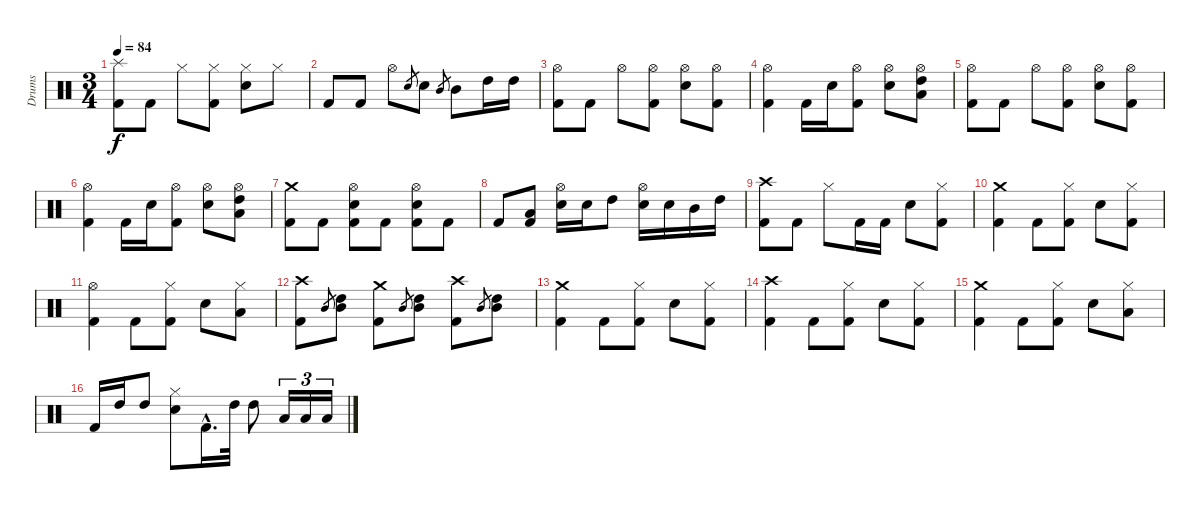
\track ("Drums" "Drums") {instrument percussion}
\staff {score}
\articulation defaults
\ts (3 4)
\tempo 84
\clef neutral
\ks c
("Kick (hit) 2" "Splash (hit)").8{dy f} "Kick (hit) 2".8 "Hi-Hat (closed)".8 ("Kick (hit) 2" "Hi-Hat (closed)").8 ("Snare (hit) 2" "Hi-Hat (closed)").8 "Hi-Hat (closed)".8 |
"Kick (hit) 2".8 "Kick (hit) 2".8 "Hi-Hat (open)".8 "Snare (hit) 2".8{gr} "Snare (hit) 2".8 "Mid Tom (hit)".8{gr} "Mid Tom (hit)".8 "High Tom (hit)".16 "High Tom (hit)".16 |
("Kick (hit) 2" "Hi-Hat (open)").8 "Kick (hit) 2".8 "Hi-Hat (open)".8 ("Kick (hit) 2" "Hi-Hat (open)").8 ("Snare (hit) 2" "Hi-Hat (open)").8 ("Kick (hit) 2" "Hi-Hat (open)").8 |
("Kick (hit) 2" "Hi-Hat (open)").4 "Kick (hit) 2".16 "Snare (hit) 2".16 ("Kick (hit) 2" "Hi-Hat (open)").8 ("Snare (hit) 2" "Hi-Hat (open)").8 ("Hi-Hat (open)" "Low Tom (hit)" "High Tom (hit)").8 |
("Kick (hit) 2" "Hi-Hat (open)").8 "Kick (hit) 2".8 "Hi-Hat (open)".8 ("Kick (hit) 2" "Hi-Hat (open)").8 ("Snare (hit) 2" "Hi-Hat (open)").8 ("Kick (hit) 2" "Hi-Hat (open)").8 |
("Kick (hit) 2" "Hi-Hat (open)").4 "Kick (hit) 2".16 "Snare (hit) 2".16 ("Kick (hit) 2" "Hi-Hat (open)").8 ("Snare (hit) 2" "Hi-Hat (open)").8 ("Hi-Hat (open)" "Low Tom (hit)" "High Tom (hit)").8 |
("Kick (hit) 2" "Crash medium (hit)").8 "Kick (hit) 2".8 ("Kick (hit) 2" "Snare (hit) 2" "Hi-Hat (open)").8 "Kick (hit) 2".8 ("Kick (hit) 2" "Snare (hit) 2" "Hi-Hat (open)").8 "Kick (hit) 2".8 |
"Kick (hit) 2".8 ("Kick (hit) 2" "Low Tom (hit)").8 ("Snare (hit) 2" "Hi-Hat (open)").16 "Snare (hit) 2".16 "High Tom (hit)".8 ("Snare (hit) 2" "Hi-Hat (open)").16 "Snare (hit) 2".16 "Mid Tom (hit)".16 "High Tom (hit)".16 |
("Kick (hit) 2" "Crash high (hit)").8 "Kick (hit) 2".8 "Hi-Hat (closed)".8 "Kick (hit) 2".16 "Kick (hit) 2".16 "Snare (hit) 2".8 ("Kick (hit) 2" "Hi-Hat (closed)").8 |
("Kick (hit) 2" "Crash medium (hit)").4 "Kick (hit) 2".8 ("Kick (hit) 2" "Hi-Hat (closed)").8 "Snare (hit) 2".8 ("Kick (hit) 2" "Hi-Hat (closed)").8 |
("Kick (hit) 2" "Hi-Hat (open)").4 "Kick (hit) 2".8 ("Kick (hit) 2" "Hi-Hat (closed)").8 "Snare (hit) 2".8 ("Hi-Hat (closed)" "Low Tom (hit)").8 |
("Kick (hit) 2" "Crash high (hit)").8 "Mid Tom (hit)".8{gr} ("Mid Tom (hit)" "High Tom (hit)").8 ("Kick (hit) 2" "Crash medium (hit)").8 "Mid Tom (hit)".8{gr} ("Mid Tom (hit)" "High Tom (hit)").8 ("Kick (hit) 2" "Crash high (hit)").8 "Mid Tom (hit)".8{gr} ("Mid Tom (hit)" "High Tom (hit)").8 |
("Kick (hit) 2" "Crash medium (hit)").4 "Kick (hit) 2".8 ("Kick (hit) 2" "Hi-Hat (closed)").8 "Snare (hit) 2".8 ("Kick (hit) 2" "Hi-Hat (closed)").8 |
("Kick (hit) 2" "Crash high (hit)").4 "Kick (hit) 2".8 ("Kick (hit) 2" "Hi-Hat (closed)").8 "Snare (hit) 2".8 ("Kick (hit) 2" "Hi-Hat (closed)").8 |
("Kick (hit) 2" "Crash medium (hit)").4 "Kick (hit) 2".8 ("Kick (hit) 2" "Hi-Hat (closed)").8 "Snare (hit) 2".8 ("Hi-Hat (closed)" "Low Tom (hit)").8 |
"Kick (hit) 2".16 "High Tom (hit)".16 "High Tom (hit)".8 ("Snare (hit) 2" "Hi-Hat (closed)").8 "Kick (hit) 2"{hac}.16{d} "High Tom (hit)".32 "High Tom (hit)".8 "Low Tom (hit)".16{tu (3 2)} "Low Tom (hit)".16{tu (3 2)} "Low Tom (hit)".16{tu (3 2)}
